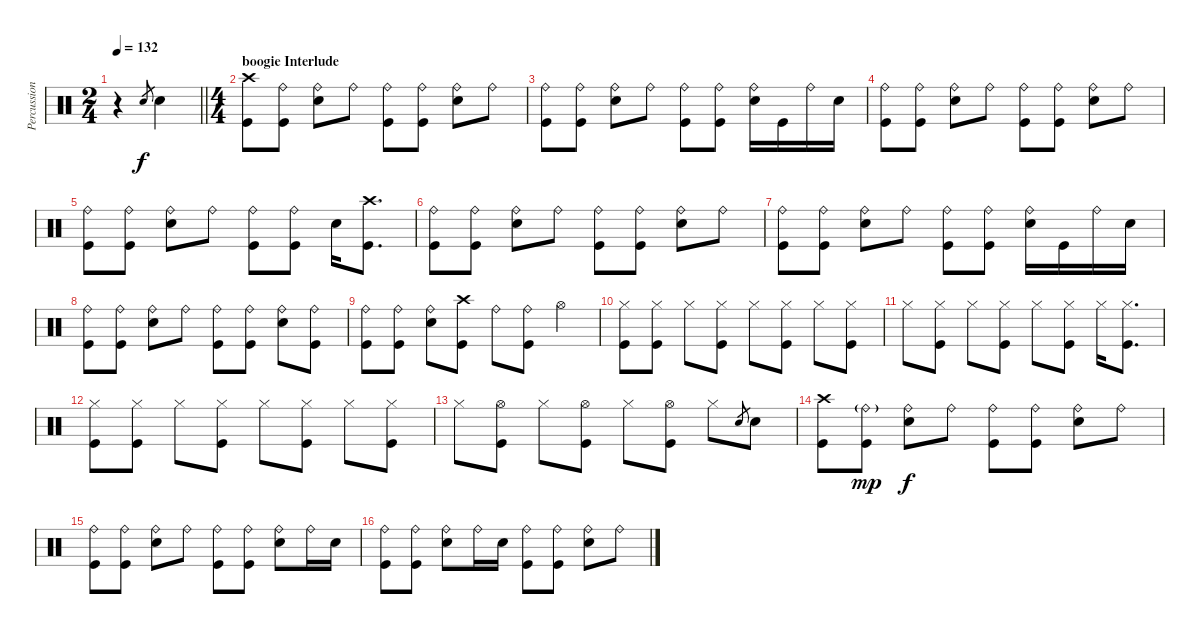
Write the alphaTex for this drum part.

\track ("Percussion" "Percussion") {instrument percussion}
\staff {score}
\articulation defaults
\ts (2 4)
\tempo 132
\clef neutral
\barLineRight lightlight
\ks c
r.4{dy mp} "Snare (hit) 2".8{gr dy f} "Snare (hit) 2".4 |
\ts (4 4)
\section ("" "boogie Interlude")
("Crash high (hit)" "Kick (hit)").8 ("Ride (bell)" "Kick (hit)").8 ("Ride (bell)" "Snare (hit) 2").8 "Ride (bell)".8 ("Ride (bell)" "Kick (hit)").8 ("Ride (bell)" "Kick (hit)").8 ("Ride (bell)" "Snare (hit) 2").8 "Ride (bell)".8 |
("Kick (hit)" "Ride (bell)").8 ("Kick (hit)" "Ride (bell)").8 ("Snare (hit) 2" "Ride (bell)").8 "Ride (bell)".8 ("Kick (hit)" "Ride (bell)").8 ("Kick (hit)" "Ride (bell)").8 ("Snare (hit) 2" "Ride (bell)").16 "Kick (hit)".16 "Ride (bell)".16 "Snare (hit) 2".16 |
("Ride (bell)" "Kick (hit)").8 ("Ride (bell)" "Kick (hit)").8 ("Ride (bell)" "Snare (hit) 2").8 "Ride (bell)".8 ("Ride (bell)" "Kick (hit)").8 ("Ride (bell)" "Kick (hit)").8 ("Ride (bell)" "Snare (hit) 2").8 "Ride (bell)".8 |
("Kick (hit)" "Ride (bell)").8 ("Kick (hit)" "Ride (bell)").8 ("Snare (hit) 2" "Ride (bell)").8 "Ride (bell)".8 ("Kick (hit)" "Ride (bell)").8 ("Kick (hit)" "Ride (bell)").8 "Snare (hit) 2".16 ("Crash high (hit)" "Kick (hit)").8{d} |
("Ride (bell)" "Kick (hit)").8 ("Ride (bell)" "Kick (hit)").8 ("Ride (bell)" "Snare (hit) 2").8 "Ride (bell)".8 ("Ride (bell)" "Kick (hit)").8 ("Ride (bell)" "Kick (hit)").8 ("Ride (bell)" "Snare (hit) 2").8 "Ride (bell)".8 |
("Kick (hit)" "Ride (bell)").8 ("Kick (hit)" "Ride (bell)").8 ("Snare (hit) 2" "Ride (bell)").8 "Ride (bell)".8 ("Kick (hit)" "Ride (bell)").8 ("Kick (hit)" "Ride (bell)").8 ("Snare (hit) 2" "Ride (bell)").16 "Kick (hit)".16 "Ride (bell)".16 "Snare (hit) 2".16 |
("Ride (bell)" "Kick (hit)").8 ("Ride (bell)" "Kick (hit)").8 ("Ride (bell)" "Snare (hit) 2").8 "Ride (bell)".8 ("Ride (bell)" "Kick (hit)").8 ("Ride (bell)" "Kick (hit)").8 ("Ride (bell)" "Snare (hit) 2").8 ("Ride (bell)" "Kick (hit)").8 |
("Ride (bell)" "Kick (hit)").8 ("Kick (hit)" "Ride (bell)").8 ("Ride (bell)" "Snare (hit) 2").8 ("Kick (hit)" "Crash high (hit)").8 "Ride (bell)".8 ("Ride (bell)" "Kick (hit)").8 "Hi-Hat (open)".4 |
("Hi-Hat (closed)" "Kick (hit)").8 ("Hi-Hat (closed)" "Kick (hit)").8 "Hi-Hat (closed)".8 ("Hi-Hat (closed)" "Kick (hit)").8 "Hi-Hat (closed)".8 ("Hi-Hat (closed)" "Kick (hit)").8 "Hi-Hat (closed)".8 ("Hi-Hat (closed)" "Kick (hit)").8 |
"Hi-Hat (closed)".8 ("Kick (hit)" "Hi-Hat (closed)").8 "Hi-Hat (closed)".8 ("Kick (hit)" "Hi-Hat (closed)").8 "Hi-Hat (closed)".8 ("Kick (hit)" "Hi-Hat (closed)").8 "Hi-Hat (closed)".16 ("Kick (hit)" "Hi-Hat (closed)").8{d} |
("Hi-Hat (closed)" "Kick (hit)").8 ("Hi-Hat (closed)" "Kick (hit)").8 "Hi-Hat (closed)".8 ("Hi-Hat (closed)" "Kick (hit)").8 "Hi-Hat (closed)".8 ("Hi-Hat (closed)" "Kick (hit)").8 "Hi-Hat (closed)".8 ("Hi-Hat (closed)" "Kick (hit)").8 |
"Hi-Hat (closed)".8 ("Kick (hit)" "Hi-Hat (open)").8 "Hi-Hat (closed)".8 ("Kick (hit)" "Hi-Hat (open)").8 "Hi-Hat (closed)".8 ("Kick (hit)" "Hi-Hat (open)").8 "Hi-Hat (closed)".8 "Snare (hit) 2".8{gr} "Snare (hit) 2".8 |
("Crash high (hit)" "Kick (hit)").8 ("Ride (bell)"{g} "Kick (hit)").8{dy mp} ("Ride (bell)" "Snare (hit) 2").8{dy f} "Ride (bell)".8 ("Ride (bell)" "Kick (hit)").8 ("Ride (bell)" "Kick (hit)").8 ("Ride (bell)" "Snare (hit) 2").8 "Ride (bell)".8 |
("Kick (hit)" "Ride (bell)").8 ("Kick (hit)" "Ride (bell)").8 ("Snare (hit) 2" "Ride (bell)").8 "Ride (bell)".8 ("Kick (hit)" "Ride (bell)").8 ("Kick (hit)" "Ride (bell)").8 ("Snare (hit) 2" "Ride (bell)").8 "Ride (bell)".16 "Snare (hit) 2".16 |
("Kick (hit)" "Ride (bell)").8 ("Kick (hit)" "Ride (bell)").8 ("Snare (hit) 2" "Ride (bell)").8 "Ride (bell)".16 "Snare (hit) 2".16 ("Kick (hit)" "Ride (bell)").8 ("Kick (hit)" "Ride (bell)").8 ("Snare (hit) 2" "Ride (bell)").8 "Ride (bell)".8
